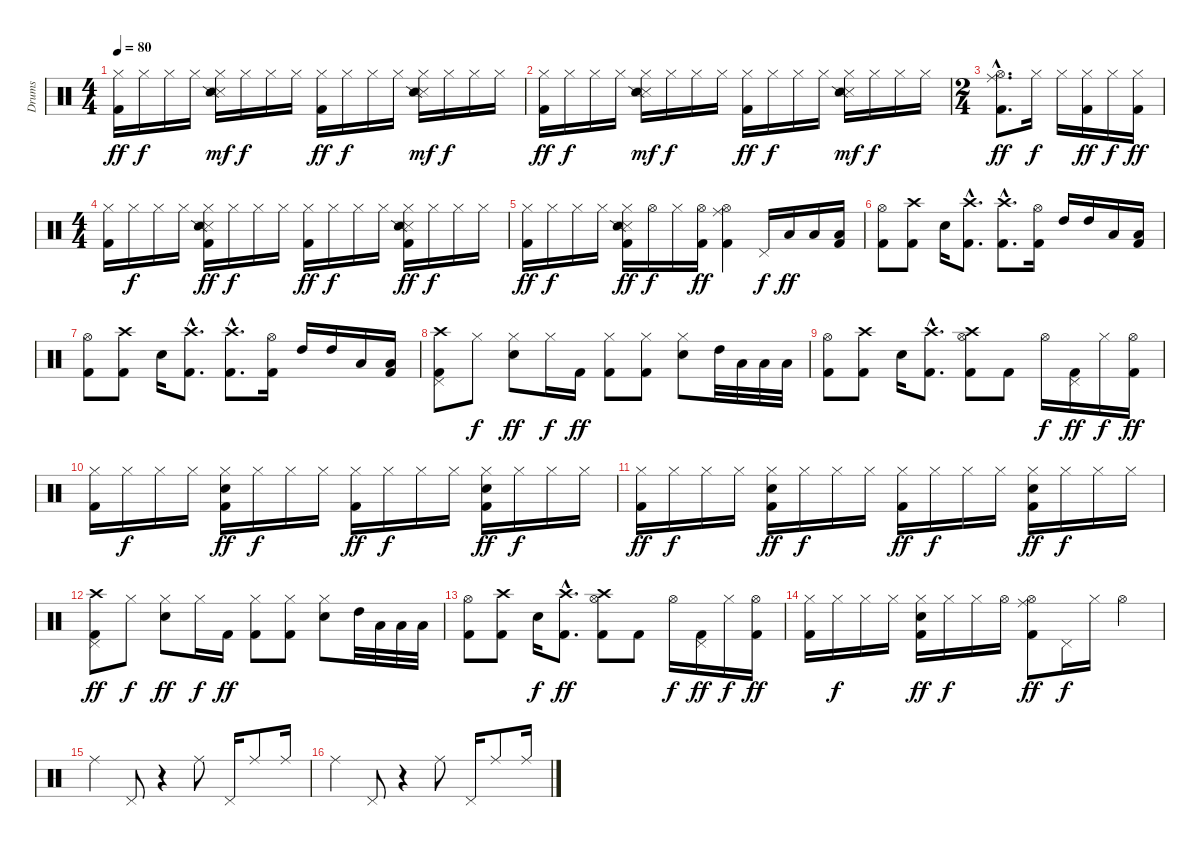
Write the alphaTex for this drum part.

\track ("Drums" "Drums") {instrument percussion}
\staff {score}
\articulation defaults
\ts (4 4)
\tempo 80
\clef neutral
\ks c
("Hi-Hat (closed)" "Kick (hit) 2").16{dy ff} "Hi-Hat (closed)".16{dy f} "Hi-Hat (closed)".16 "Hi-Hat (closed)".16 ("Hi-Hat (closed)" "Snare (side stick) 3" "Snare (side stick) 2").16{dy mf} "Hi-Hat (closed)".16{dy f} "Hi-Hat (closed)".16 "Hi-Hat (closed)".16 ("Hi-Hat (closed)" "Kick (hit) 2").16{dy ff} "Hi-Hat (closed)".16{dy f} "Hi-Hat (closed)".16 "Hi-Hat (closed)".16 ("Hi-Hat (closed)" "Snare (side stick) 3" "Snare (side stick) 2").16{dy mf} "Hi-Hat (closed)".16{dy f} "Hi-Hat (closed)".16 "Hi-Hat (closed)".16 |
("Hi-Hat (closed)" "Kick (hit) 2").16{dy ff} "Hi-Hat (closed)".16{dy f} "Hi-Hat (closed)".16 "Hi-Hat (closed)".16 ("Hi-Hat (closed)" "Snare (side stick) 3" "Snare (side stick) 2").16{dy mf} "Hi-Hat (closed)".16{dy f} "Hi-Hat (closed)".16 "Hi-Hat (closed)".16 ("Hi-Hat (closed)" "Kick (hit) 2").16{dy ff} "Hi-Hat (closed)".16{dy f} "Hi-Hat (closed)".16 "Hi-Hat (closed)".16 ("Hi-Hat (closed)" "Snare (side stick) 3" "Snare (side stick) 2").16{dy mf} "Hi-Hat (closed)".16{dy f} "Hi-Hat (closed)".16 "Hi-Hat (closed)".16 |
\ts (2 4)
("Ride (middle)" "Hi-Hat (open)"{hac} "Kick (hit) 2"{hac}).8{d dy ff} "Hi-Hat (closed)".16{dy f} "Hi-Hat (closed)".16 ("Hi-Hat (closed)" "Kick (hit) 2").16{dy ff} "Hi-Hat (closed)".16{dy f} ("Hi-Hat (closed)" "Kick (hit) 2").16{dy ff} |
\ts (4 4)
("Hi-Hat (closed)" "Kick (hit) 2").16 "Hi-Hat (closed)".16{dy f} "Hi-Hat (closed)".16 "Hi-Hat (closed)".16 ("Hi-Hat (closed)" "Snare (side stick) 3" "Snare (side stick) 2" "Kick (hit) 2").16{dy ff} "Hi-Hat (closed)".16{dy f} "Hi-Hat (closed)".16 "Hi-Hat (closed)".16 ("Hi-Hat (closed)" "Kick (hit) 2").16{dy ff} "Hi-Hat (closed)".16{dy f} "Hi-Hat (closed)".16 "Hi-Hat (closed)".16 ("Hi-Hat (closed)" "Snare (side stick) 3" "Snare (side stick) 2" "Kick (hit) 2").16{dy ff} "Hi-Hat (closed)".16{dy f} "Hi-Hat (closed)".16 "Hi-Hat (closed)".16 |
("Hi-Hat (closed)" "Kick (hit) 2").16{dy ff} "Hi-Hat (closed)".16{dy f} "Hi-Hat (closed)".16 "Hi-Hat (closed)".16 ("Hi-Hat (closed)" "Snare (side stick) 3" "Snare (side stick) 2" "Kick (hit) 2").16{dy ff} "Hi-Hat (open)".16{dy f} "Hi-Hat (closed)".16 ("Hi-Hat (open)" "Kick (hit) 2").16{dy ff} ("Ride (middle)" "Hi-Hat (open)" "Kick (hit) 2").4 "Pedal Hi-Hat (hit)".16{dy f} "Low Tom (hit)".16{dy ff} "Low Floor Tom (hit)".16 ("Low Floor Tom (hit)" "Kick (hit) 2").16 |
("Hi-Hat (open)" "Kick (hit) 2").8 ("Crash high (hit)" "Kick (hit) 2").8 "Snare (hit) 2".16 ("Crash high (hit)"{hac} "Kick (hit) 2").8{d} ("Crash high (hit)"{hac} "Kick (hit) 2"{hac}).8{d} ("Hi-Hat (open)" "Kick (hit) 2").16 "High Tom (hit)".16 "High Tom (hit)".16 "Low Tom (hit)".16 ("Low Floor Tom (hit)" "Kick (hit) 2").16 |
("Hi-Hat (open)" "Kick (hit) 2").8 ("Crash high (hit)" "Kick (hit) 2").8 "Snare (hit) 2".16 ("Crash high (hit)"{hac} "Kick (hit) 2").8{d} ("Crash high (hit)"{hac} "Kick (hit) 2"{hac}).8{d} ("Hi-Hat (open)" "Kick (hit) 2").16 "High Tom (hit)".16 "High Tom (hit)".16 "Low Tom (hit)".16 ("Low Floor Tom (hit)" "Kick (hit) 2").16 |
("Crash high (hit)" "Pedal Hi-Hat (hit)" "Kick (hit) 2").8 "Hi-Hat (closed)".8{dy f} ("Hi-Hat (closed)" "Snare (hit) 2").8{dy ff} "Hi-Hat (closed)".16{dy f} "Kick (hit) 2".16{dy ff} ("Hi-Hat (closed)" "Kick (hit) 2").8 ("Hi-Hat (closed)" "Kick (hit) 2").8 ("Hi-Hat (closed)" "Snare (hit) 2").8 "High Tom (hit)".32 "Low Tom (hit)".32 "Low Tom (hit)".32 "Low Floor Tom (hit)".32 |
("Hi-Hat (open)" "Kick (hit) 2").8 ("Crash high (hit)" "Kick (hit) 2").8 "Snare (hit) 2".16 ("Crash high (hit)"{hac} "Kick (hit) 2"{hac}).8{d} ("Crash high (hit)" "Hi-Hat (open)" "Kick (hit) 2").8 "Kick (hit) 2".8 "Hi-Hat (open)".16{dy f} ("Pedal Hi-Hat (hit)" "Kick (hit) 2").16{dy ff} "Hi-Hat (closed)".16{dy f} ("Hi-Hat (open)" "Kick (hit) 2").16{dy ff} |
("Hi-Hat (closed)" "Kick (hit) 2").16 "Hi-Hat (closed)".16{dy f} "Hi-Hat (closed)".16 "Hi-Hat (closed)".16 ("Hi-Hat (closed)" "Snare (hit) 2" "Kick (hit) 2").16{dy ff} "Hi-Hat (closed)".16{dy f} "Hi-Hat (closed)".16 "Hi-Hat (closed)".16 ("Hi-Hat (closed)" "Kick (hit) 2").16{dy ff} "Hi-Hat (closed)".16{dy f} "Hi-Hat (closed)".16 "Hi-Hat (closed)".16 ("Hi-Hat (closed)" "Snare (hit) 2" "Kick (hit) 2").16{dy ff} "Hi-Hat (closed)".16{dy f} "Hi-Hat (closed)".16 "Hi-Hat (closed)".16 |
("Hi-Hat (closed)" "Kick (hit) 2").16{dy ff} "Hi-Hat (closed)".16{dy f} "Hi-Hat (closed)".16 "Hi-Hat (closed)".16 ("Hi-Hat (closed)" "Snare (hit) 2" "Kick (hit) 2").16{dy ff} "Hi-Hat (closed)".16{dy f} "Hi-Hat (closed)".16 "Hi-Hat (closed)".16 ("Hi-Hat (closed)" "Kick (hit) 2").16{dy ff} "Hi-Hat (closed)".16{dy f} "Hi-Hat (closed)".16 "Hi-Hat (closed)".16 ("Hi-Hat (closed)" "Snare (hit) 2" "Kick (hit) 2").16{dy ff} "Hi-Hat (closed)".16{dy f} "Hi-Hat (closed)".16 "Hi-Hat (closed)".16 |
("Crash high (hit)" "Pedal Hi-Hat (hit)" "Kick (hit) 2").8{dy ff} "Hi-Hat (closed)".8{dy f} ("Hi-Hat (closed)" "Snare (hit) 2").8{dy ff} "Hi-Hat (closed)".16{dy f} "Kick (hit) 2".16{dy ff} ("Hi-Hat (closed)" "Kick (hit) 2").8 ("Hi-Hat (closed)" "Kick (hit) 2").8 ("Hi-Hat (closed)" "Snare (hit) 2").8 "High Tom (hit)".32 "Low Tom (hit)".32 "Low Tom (hit)".32 "Low Floor Tom (hit)".32 |
("Hi-Hat (open)" "Kick (hit) 2").8 ("Crash high (hit)" "Kick (hit) 2").8 "Snare (hit) 2".16{dy f} ("Crash high (hit)"{hac} "Kick (hit) 2"{hac}).8{d dy ff} ("Crash high (hit)" "Hi-Hat (open)" "Kick (hit) 2").8 "Kick (hit) 2".8 "Hi-Hat (open)".16{dy f} ("Pedal Hi-Hat (hit)" "Kick (hit) 2").16{dy ff} "Hi-Hat (closed)".16{dy f} ("Hi-Hat (open)" "Kick (hit) 2").16{dy ff} |
("Hi-Hat (closed)" "Kick (hit) 2").16 "Hi-Hat (closed)".16{dy f} "Hi-Hat (closed)".16 "Hi-Hat (closed)".16 ("Hi-Hat (closed)" "Snare (hit) 2" "Kick (hit) 2").16{dy ff} "Hi-Hat (closed)".16{dy f} "Hi-Hat (closed)".16 "Hi-Hat (open)".16 ("Ride (middle)" "Hi-Hat (open)" "Kick (hit) 2").8{dy ff} "Pedal Hi-Hat (hit)".16{dy f} "Hi-Hat (closed)".16 "Hi-Hat (open)".4 |
"Ride (middle)".4 "Pedal Hi-Hat (hit)".8 r.4 "Ride (middle)".8 "Pedal Hi-Hat (hit)".16 "Ride (middle)".8 "Ride (middle)".16 |
"Ride (middle)".4 "Pedal Hi-Hat (hit)".8 r.4 "Ride (middle)".8 "Pedal Hi-Hat (hit)".16 "Ride (middle)".8 "Ride (middle)".16
